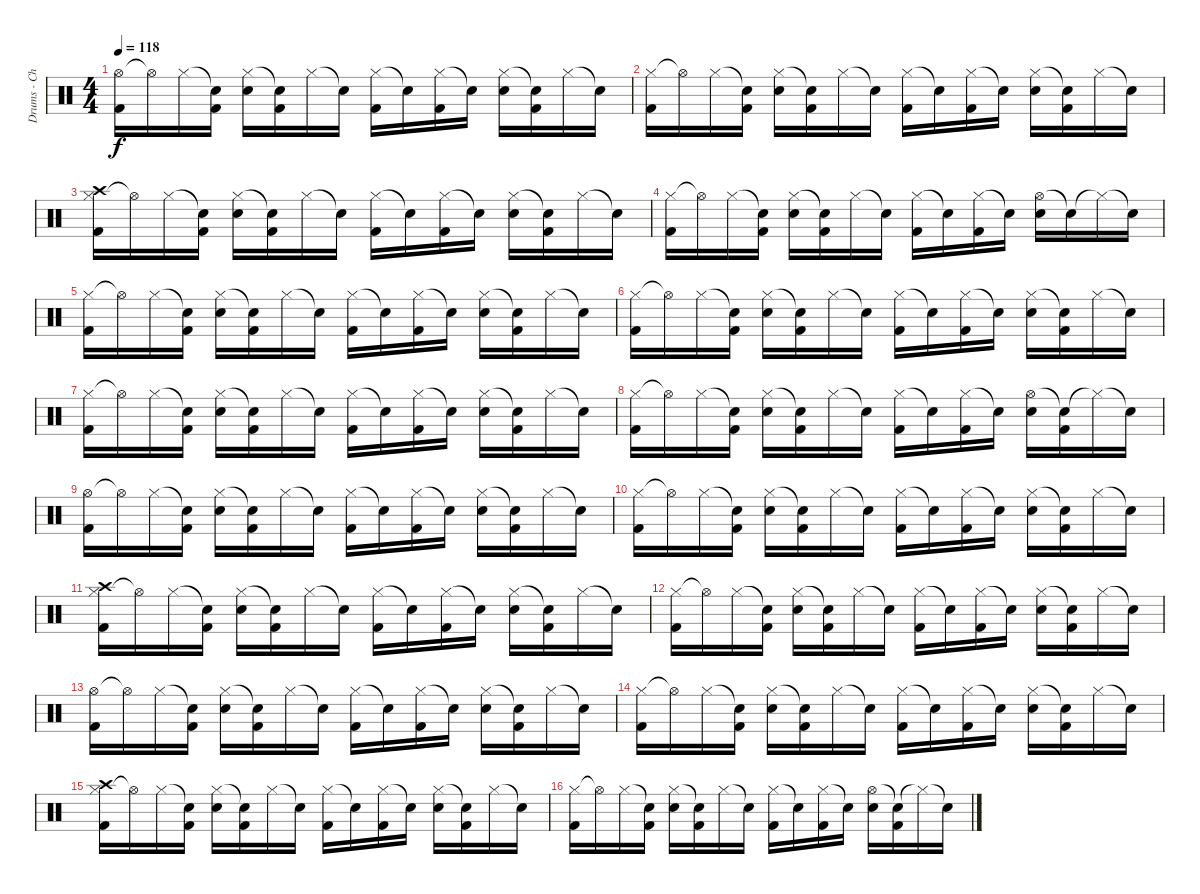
\track ("Drums - Chad" "Drums - Ch") {instrument percussion}
\staff {score}
\articulation defaults
\ts (4 4)
\tempo 118
\clef neutral
\ks c
("Hi-Hat (open)" "Kick (hit) 2").16{dy f} "Hi-Hat (open)"{t}.16 "Hi-Hat (closed)".16 ("Snare (hit)"{t} "Kick (hit) 2").16 ("Hi-Hat (closed)" "Electric Snare (hit)").16 ("Snare (hit)"{t} "Kick (hit) 2").16 "Hi-Hat (closed)".16 "Snare (hit)"{t}.16 ("Hi-Hat (closed)" "Kick (hit) 2").16 "Snare (hit)"{t}.16 ("Hi-Hat (closed)" "Kick (hit) 2").16 "Snare (hit)"{t}.16 ("Hi-Hat (closed)" "Electric Snare (hit)").16 ("Snare (hit)"{t} "Kick (hit) 2").16 "Hi-Hat (closed)".16 "Snare (hit)"{t}.16 |
("Hi-Hat (closed)" "Kick (hit) 2").16 "Hi-Hat (open)"{t}.16 "Hi-Hat (closed)".16 ("Snare (hit)"{t} "Kick (hit) 2").16 ("Hi-Hat (closed)" "Electric Snare (hit)").16 ("Snare (hit)"{t} "Kick (hit) 2").16 "Hi-Hat (closed)".16 "Snare (hit)"{t}.16 ("Hi-Hat (closed)" "Kick (hit) 2").16 "Snare (hit)"{t}.16 ("Hi-Hat (closed)" "Kick (hit) 2").16 "Snare (hit)"{t}.16 ("Hi-Hat (closed)" "Electric Snare (hit)").16 ("Snare (hit)"{t} "Kick (hit) 2").16 "Hi-Hat (closed)".16 "Snare (hit)"{t}.16 |
("Hi-Hat (closed)" "Kick (hit) 2" "Crash high (hit)").16 "Hi-Hat (open)"{t}.16 "Hi-Hat (closed)".16 ("Snare (hit)"{t} "Kick (hit) 2").16 ("Hi-Hat (closed)" "Electric Snare (hit)").16 ("Snare (hit)"{t} "Kick (hit) 2").16 "Hi-Hat (closed)".16 "Snare (hit)"{t}.16 ("Hi-Hat (closed)" "Kick (hit) 2").16 "Snare (hit)"{t}.16 ("Hi-Hat (closed)" "Kick (hit) 2").16 "Snare (hit)"{t}.16 ("Hi-Hat (closed)" "Electric Snare (hit)").16 ("Snare (hit)"{t} "Kick (hit) 2").16 "Hi-Hat (closed)".16 "Snare (hit)"{t}.16 |
("Hi-Hat (closed)" "Kick (hit) 2").16 "Hi-Hat (open)"{t}.16 "Hi-Hat (closed)".16 ("Snare (hit)"{t} "Kick (hit) 2").16 ("Hi-Hat (closed)" "Electric Snare (hit)").16 ("Snare (hit)"{t} "Kick (hit) 2").16 "Hi-Hat (closed)".16 "Snare (hit)"{t}.16 ("Hi-Hat (closed)" "Kick (hit) 2").16 "Snare (hit)"{t}.16 ("Hi-Hat (closed)" "Kick (hit) 2").16 "Snare (hit)"{t}.16 ("Hi-Hat (open)" "Electric Snare (hit)").16 "Snare (hit)"{t}.16 "Hi-Hat (closed)"{t}.16 "Snare (hit)"{t}.16 |
("Hi-Hat (closed)" "Kick (hit) 2").16 "Hi-Hat (open)"{t}.16 "Hi-Hat (closed)".16 ("Snare (hit)"{t} "Kick (hit) 2").16 ("Hi-Hat (closed)" "Electric Snare (hit)").16 ("Snare (hit)"{t} "Kick (hit) 2").16 "Hi-Hat (closed)".16 "Snare (hit)"{t}.16 ("Hi-Hat (closed)" "Kick (hit) 2").16 "Snare (hit)"{t}.16 ("Hi-Hat (closed)" "Kick (hit) 2").16 "Snare (hit)"{t}.16 ("Hi-Hat (closed)" "Electric Snare (hit)").16 ("Snare (hit)"{t} "Kick (hit) 2").16 "Hi-Hat (closed)".16 "Snare (hit)"{t}.16 |
("Hi-Hat (closed)" "Kick (hit) 2").16 "Hi-Hat (open)"{t}.16 "Hi-Hat (closed)".16 ("Snare (hit)"{t} "Kick (hit) 2").16 ("Hi-Hat (closed)" "Electric Snare (hit)").16 ("Snare (hit)"{t} "Kick (hit) 2").16 "Hi-Hat (closed)".16 "Snare (hit)"{t}.16 ("Hi-Hat (closed)" "Kick (hit) 2").16 "Snare (hit)"{t}.16 ("Hi-Hat (closed)" "Kick (hit) 2").16 "Snare (hit)"{t}.16 ("Hi-Hat (closed)" "Electric Snare (hit)").16 ("Snare (hit)"{t} "Kick (hit) 2").16 "Hi-Hat (closed)".16 "Snare (hit)"{t}.16 |
("Hi-Hat (closed)" "Kick (hit) 2").16 "Hi-Hat (open)"{t}.16 "Hi-Hat (closed)".16 ("Snare (hit)"{t} "Kick (hit) 2").16 ("Hi-Hat (closed)" "Electric Snare (hit)").16 ("Snare (hit)"{t} "Kick (hit) 2").16 "Hi-Hat (closed)".16 "Snare (hit)"{t}.16 ("Hi-Hat (closed)" "Kick (hit) 2").16 "Snare (hit)"{t}.16 ("Hi-Hat (closed)" "Kick (hit) 2").16 "Snare (hit)"{t}.16 ("Hi-Hat (closed)" "Electric Snare (hit)").16 ("Snare (hit)"{t} "Kick (hit) 2").16 "Hi-Hat (closed)".16 "Snare (hit)"{t}.16 |
("Hi-Hat (closed)" "Kick (hit) 2").16 "Hi-Hat (open)"{t}.16 "Hi-Hat (closed)".16 ("Snare (hit)"{t} "Kick (hit) 2").16 ("Hi-Hat (closed)" "Electric Snare (hit)").16 ("Snare (hit)"{t} "Kick (hit) 2").16 "Hi-Hat (closed)".16 "Snare (hit)"{t}.16 ("Hi-Hat (closed)" "Kick (hit) 2").16 "Snare (hit)"{t}.16 ("Hi-Hat (closed)" "Kick (hit) 2").16 "Snare (hit)"{t}.16 ("Hi-Hat (open)" "Electric Snare (hit)").16 ("Snare (hit)"{t} "Kick (hit) 2").16 "Hi-Hat (closed)"{t}.16 "Snare (hit)"{t}.16 |
("Hi-Hat (open)" "Kick (hit) 2").16 "Hi-Hat (open)"{t}.16 "Hi-Hat (closed)".16 ("Snare (hit)"{t} "Kick (hit) 2").16 ("Hi-Hat (closed)" "Electric Snare (hit)").16 ("Snare (hit)"{t} "Kick (hit) 2").16 "Hi-Hat (closed)".16 "Snare (hit)"{t}.16 ("Hi-Hat (closed)" "Kick (hit) 2").16 "Snare (hit)"{t}.16 ("Hi-Hat (closed)" "Kick (hit) 2").16 "Snare (hit)"{t}.16 ("Hi-Hat (closed)" "Electric Snare (hit)").16 ("Snare (hit)"{t} "Kick (hit) 2").16 "Hi-Hat (closed)".16 "Snare (hit)"{t}.16 |
("Hi-Hat (closed)" "Kick (hit) 2").16 "Hi-Hat (open)"{t}.16 "Hi-Hat (closed)".16 ("Snare (hit)"{t} "Kick (hit) 2").16 ("Hi-Hat (closed)" "Electric Snare (hit)").16 ("Snare (hit)"{t} "Kick (hit) 2").16 "Hi-Hat (closed)".16 "Snare (hit)"{t}.16 ("Hi-Hat (closed)" "Kick (hit) 2").16 "Snare (hit)"{t}.16 ("Hi-Hat (closed)" "Kick (hit) 2").16 "Snare (hit)"{t}.16 ("Hi-Hat (closed)" "Electric Snare (hit)").16 ("Snare (hit)"{t} "Kick (hit) 2").16 "Hi-Hat (closed)".16 "Snare (hit)"{t}.16 |
("Hi-Hat (closed)" "Kick (hit) 2" "Crash high (hit)").16 "Hi-Hat (open)"{t}.16 "Hi-Hat (closed)".16 ("Snare (hit)"{t} "Kick (hit) 2").16 ("Hi-Hat (closed)" "Electric Snare (hit)").16 ("Snare (hit)"{t} "Kick (hit) 2").16 "Hi-Hat (closed)".16 "Snare (hit)"{t}.16 ("Hi-Hat (closed)" "Kick (hit) 2").16 "Snare (hit)"{t}.16 ("Hi-Hat (closed)" "Kick (hit) 2").16 "Snare (hit)"{t}.16 ("Hi-Hat (closed)" "Electric Snare (hit)").16 ("Snare (hit)"{t} "Kick (hit) 2").16 "Hi-Hat (closed)".16 "Snare (hit)"{t}.16 |
("Hi-Hat (closed)" "Kick (hit) 2").16 "Hi-Hat (open)"{t}.16 "Hi-Hat (closed)".16 ("Snare (hit)"{t} "Kick (hit) 2").16 ("Hi-Hat (closed)" "Electric Snare (hit)").16 ("Snare (hit)"{t} "Kick (hit) 2").16 "Hi-Hat (closed)".16 "Snare (hit)"{t}.16 ("Hi-Hat (closed)" "Kick (hit) 2").16 "Snare (hit)"{t}.16 ("Hi-Hat (closed)" "Kick (hit) 2").16 "Snare (hit)"{t}.16 ("Hi-Hat (closed)" "Electric Snare (hit)").16 ("Snare (hit)"{t} "Kick (hit) 2").16 "Hi-Hat (closed)".16 "Snare (hit)"{t}.16 |
("Hi-Hat (open)" "Kick (hit) 2").16 "Hi-Hat (open)"{t}.16 "Hi-Hat (closed)".16 ("Snare (hit)"{t} "Kick (hit) 2").16 ("Hi-Hat (closed)" "Electric Snare (hit)").16 ("Snare (hit)"{t} "Kick (hit) 2").16 "Hi-Hat (closed)".16 "Snare (hit)"{t}.16 ("Hi-Hat (closed)" "Kick (hit) 2").16 "Snare (hit)"{t}.16 ("Hi-Hat (closed)" "Kick (hit) 2").16 "Snare (hit)"{t}.16 ("Hi-Hat (closed)" "Electric Snare (hit)").16 ("Snare (hit)"{t} "Kick (hit) 2").16 "Hi-Hat (closed)".16 "Snare (hit)"{t}.16 |
("Hi-Hat (closed)" "Kick (hit) 2").16 "Hi-Hat (open)"{t}.16 "Hi-Hat (closed)".16 ("Snare (hit)"{t} "Kick (hit) 2").16 ("Hi-Hat (closed)" "Electric Snare (hit)").16 ("Snare (hit)"{t} "Kick (hit) 2").16 "Hi-Hat (closed)".16 "Snare (hit)"{t}.16 ("Hi-Hat (closed)" "Kick (hit) 2").16 "Snare (hit)"{t}.16 ("Hi-Hat (closed)" "Kick (hit) 2").16 "Snare (hit)"{t}.16 ("Hi-Hat (closed)" "Electric Snare (hit)").16 ("Snare (hit)"{t} "Kick (hit) 2").16 "Hi-Hat (closed)".16 "Snare (hit)"{t}.16 |
("Hi-Hat (closed)" "Kick (hit) 2" "Crash high (hit)").16 "Hi-Hat (open)"{t}.16 "Hi-Hat (closed)".16 ("Snare (hit)"{t} "Kick (hit) 2").16 ("Hi-Hat (closed)" "Electric Snare (hit)").16 ("Snare (hit)"{t} "Kick (hit) 2").16 "Hi-Hat (closed)".16 "Snare (hit)"{t}.16 ("Hi-Hat (closed)" "Kick (hit) 2").16 "Snare (hit)"{t}.16 ("Hi-Hat (closed)" "Kick (hit) 2").16 "Snare (hit)"{t}.16 ("Hi-Hat (closed)" "Electric Snare (hit)").16 ("Snare (hit)"{t} "Kick (hit) 2").16 "Hi-Hat (closed)".16 "Snare (hit)"{t}.16 |
("Hi-Hat (closed)" "Kick (hit) 2").16 "Hi-Hat (open)"{t}.16 "Hi-Hat (closed)".16 ("Snare (hit)"{t} "Kick (hit) 2").16 ("Hi-Hat (closed)" "Electric Snare (hit)").16 ("Snare (hit)"{t} "Kick (hit) 2").16 "Hi-Hat (closed)".16 "Snare (hit)"{t}.16 ("Hi-Hat (closed)" "Kick (hit) 2").16 "Snare (hit)"{t}.16 ("Hi-Hat (closed)" "Kick (hit) 2").16 "Snare (hit)"{t}.16 ("Hi-Hat (open)" "Electric Snare (hit)").16 ("Snare (hit)"{t} "Kick (hit) 2").16 "Hi-Hat (closed)"{t}.16 "Snare (hit)"{t}.16
